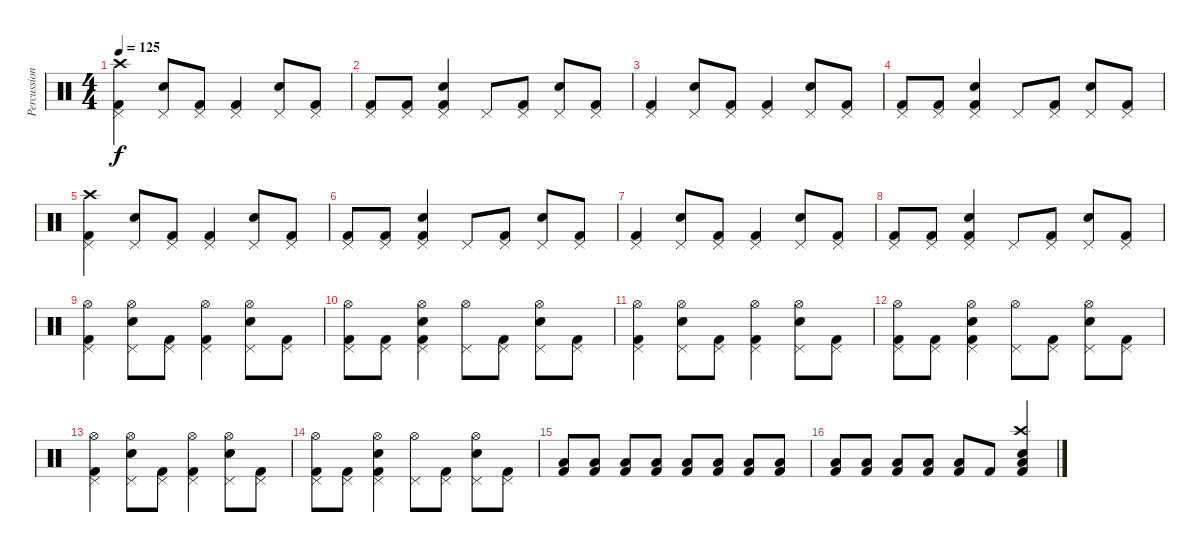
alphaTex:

\track ("Percussion" "Percussion") {instrument percussion}
\staff {score}
\articulation defaults
\ts (4 4)
\tempo 125
\clef neutral
\ks c
("Pedal Hi-Hat (hit)" "Kick (hit) 2" "Crash high (hit)").4{dy f} ("Pedal Hi-Hat (hit)" "Snare (hit) 2").8 ("Pedal Hi-Hat (hit)" "Kick (hit) 2").8 ("Pedal Hi-Hat (hit)" "Kick (hit) 2").4 ("Pedal Hi-Hat (hit)" "Snare (hit) 2").8 ("Pedal Hi-Hat (hit)" "Kick (hit) 2").8 |
("Pedal Hi-Hat (hit)" "Kick (hit) 2").8 ("Pedal Hi-Hat (hit)" "Kick (hit) 2").8 ("Pedal Hi-Hat (hit)" "Kick (hit) 2" "Snare (hit) 2").4 "Pedal Hi-Hat (hit)".8 ("Pedal Hi-Hat (hit)" "Kick (hit) 2").8 ("Pedal Hi-Hat (hit)" "Snare (hit) 2").8 ("Pedal Hi-Hat (hit)" "Kick (hit) 2").8 |
("Pedal Hi-Hat (hit)" "Kick (hit) 2").4 ("Pedal Hi-Hat (hit)" "Snare (hit) 2").8 ("Pedal Hi-Hat (hit)" "Kick (hit) 2").8 ("Pedal Hi-Hat (hit)" "Kick (hit) 2").4 ("Pedal Hi-Hat (hit)" "Snare (hit) 2").8 ("Pedal Hi-Hat (hit)" "Kick (hit) 2").8 |
("Pedal Hi-Hat (hit)" "Kick (hit) 2").8 ("Pedal Hi-Hat (hit)" "Kick (hit) 2").8 ("Pedal Hi-Hat (hit)" "Kick (hit) 2" "Snare (hit) 2").4 "Pedal Hi-Hat (hit)".8 ("Pedal Hi-Hat (hit)" "Kick (hit) 2").8 ("Pedal Hi-Hat (hit)" "Snare (hit) 2").8 ("Pedal Hi-Hat (hit)" "Kick (hit) 2").8 |
("Pedal Hi-Hat (hit)" "Kick (hit) 2" "Crash high (hit)").4 ("Pedal Hi-Hat (hit)" "Snare (hit) 2").8 ("Pedal Hi-Hat (hit)" "Kick (hit) 2").8 ("Pedal Hi-Hat (hit)" "Kick (hit) 2").4 ("Pedal Hi-Hat (hit)" "Snare (hit) 2").8 ("Pedal Hi-Hat (hit)" "Kick (hit) 2").8 |
("Pedal Hi-Hat (hit)" "Kick (hit) 2").8 ("Pedal Hi-Hat (hit)" "Kick (hit) 2").8 ("Pedal Hi-Hat (hit)" "Kick (hit) 2" "Snare (hit) 2").4 "Pedal Hi-Hat (hit)".8 ("Pedal Hi-Hat (hit)" "Kick (hit) 2").8 ("Pedal Hi-Hat (hit)" "Snare (hit) 2").8 ("Pedal Hi-Hat (hit)" "Kick (hit) 2").8 |
("Pedal Hi-Hat (hit)" "Kick (hit) 2").4 ("Pedal Hi-Hat (hit)" "Snare (hit) 2").8 ("Pedal Hi-Hat (hit)" "Kick (hit) 2").8 ("Pedal Hi-Hat (hit)" "Kick (hit) 2").4 ("Pedal Hi-Hat (hit)" "Snare (hit) 2").8 ("Pedal Hi-Hat (hit)" "Kick (hit) 2").8 |
("Pedal Hi-Hat (hit)" "Kick (hit) 2").8 ("Pedal Hi-Hat (hit)" "Kick (hit) 2").8 ("Pedal Hi-Hat (hit)" "Kick (hit) 2" "Snare (hit) 2").4 "Pedal Hi-Hat (hit)".8 ("Pedal Hi-Hat (hit)" "Kick (hit) 2").8 ("Pedal Hi-Hat (hit)" "Snare (hit) 2").8 ("Pedal Hi-Hat (hit)" "Kick (hit) 2").8 |
("Pedal Hi-Hat (hit)" "Kick (hit) 2" "Hi-Hat (open)").4 ("Pedal Hi-Hat (hit)" "Snare (hit) 2" "Hi-Hat (open)").8 ("Pedal Hi-Hat (hit)" "Kick (hit) 2").8 ("Pedal Hi-Hat (hit)" "Kick (hit) 2" "Hi-Hat (open)").4 ("Pedal Hi-Hat (hit)" "Snare (hit) 2" "Hi-Hat (open)").8 ("Pedal Hi-Hat (hit)" "Kick (hit) 2").8 |
("Pedal Hi-Hat (hit)" "Kick (hit) 2" "Hi-Hat (open)").8 ("Pedal Hi-Hat (hit)" "Kick (hit) 2").8 ("Pedal Hi-Hat (hit)" "Kick (hit) 2" "Snare (hit) 2" "Hi-Hat (open)").4 ("Pedal Hi-Hat (hit)" "Hi-Hat (open)").8 ("Pedal Hi-Hat (hit)" "Kick (hit) 2").8 ("Pedal Hi-Hat (hit)" "Snare (hit) 2" "Hi-Hat (open)").8 ("Pedal Hi-Hat (hit)" "Kick (hit) 2").8 |
("Pedal Hi-Hat (hit)" "Kick (hit) 2" "Hi-Hat (open)").4 ("Pedal Hi-Hat (hit)" "Snare (hit) 2" "Hi-Hat (open)").8 ("Pedal Hi-Hat (hit)" "Kick (hit) 2").8 ("Pedal Hi-Hat (hit)" "Kick (hit) 2" "Hi-Hat (open)").4 ("Pedal Hi-Hat (hit)" "Snare (hit) 2" "Hi-Hat (open)").8 ("Pedal Hi-Hat (hit)" "Kick (hit) 2").8 |
("Pedal Hi-Hat (hit)" "Kick (hit) 2" "Hi-Hat (open)").8 ("Pedal Hi-Hat (hit)" "Kick (hit) 2").8 ("Pedal Hi-Hat (hit)" "Kick (hit) 2" "Snare (hit) 2" "Hi-Hat (open)").4 ("Pedal Hi-Hat (hit)" "Hi-Hat (open)").8 ("Pedal Hi-Hat (hit)" "Kick (hit) 2").8 ("Pedal Hi-Hat (hit)" "Snare (hit) 2" "Hi-Hat (open)").8 ("Pedal Hi-Hat (hit)" "Kick (hit) 2").8 |
("Pedal Hi-Hat (hit)" "Kick (hit) 2" "Hi-Hat (open)").4 ("Pedal Hi-Hat (hit)" "Snare (hit) 2" "Hi-Hat (open)").8 ("Pedal Hi-Hat (hit)" "Kick (hit) 2").8 ("Pedal Hi-Hat (hit)" "Kick (hit) 2" "Hi-Hat (open)").4 ("Pedal Hi-Hat (hit)" "Snare (hit) 2" "Hi-Hat (open)").8 ("Pedal Hi-Hat (hit)" "Kick (hit) 2").8 |
("Pedal Hi-Hat (hit)" "Kick (hit) 2" "Hi-Hat (open)").8 ("Pedal Hi-Hat (hit)" "Kick (hit) 2").8 ("Pedal Hi-Hat (hit)" "Kick (hit) 2" "Snare (hit) 2" "Hi-Hat (open)").4 ("Pedal Hi-Hat (hit)" "Hi-Hat (open)").8 ("Pedal Hi-Hat (hit)" "Kick (hit) 2").8 ("Pedal Hi-Hat (hit)" "Snare (hit) 2" "Hi-Hat (open)").8 ("Pedal Hi-Hat (hit)" "Kick (hit) 2").8 |
("Kick (hit) 2" "Low Tom (hit)").8 ("Kick (hit) 2" "Low Tom (hit)").8 ("Kick (hit) 2" "Low Tom (hit)").8 ("Kick (hit) 2" "Low Tom (hit)").8 ("Kick (hit) 2" "Low Tom (hit)").8 ("Kick (hit) 2" "Low Tom (hit)").8 ("Kick (hit) 2" "Low Tom (hit)").8 ("Kick (hit) 2" "Low Tom (hit)").8 |
("Kick (hit) 2" "Low Tom (hit)").8 ("Kick (hit) 2" "Low Tom (hit)").8 ("Kick (hit) 2" "Low Tom (hit)").8 ("Kick (hit) 2" "Low Tom (hit)").8 ("Kick (hit) 2" "Low Tom (hit)").8 "Kick (hit) 2".8 ("Crash high (hit)" "Kick (hit) 2" "Snare (hit) 2" "Low Tom (hit)").4
